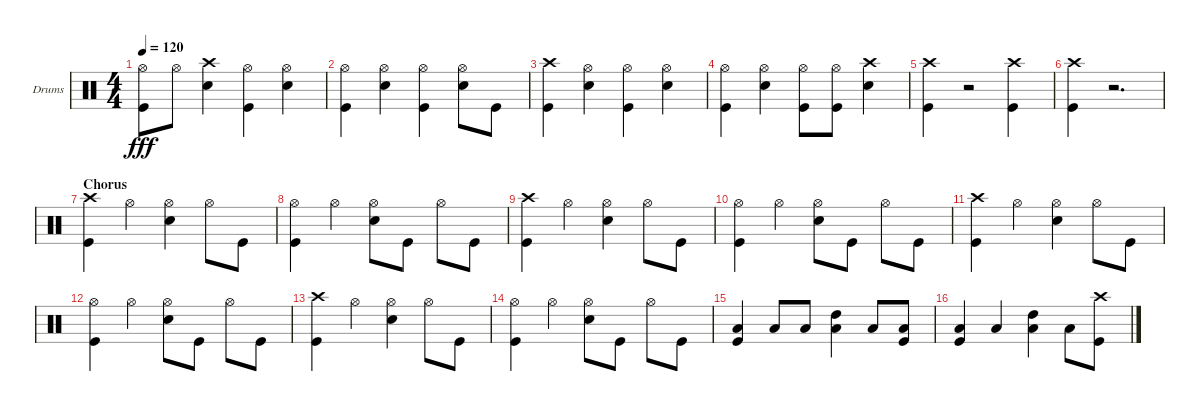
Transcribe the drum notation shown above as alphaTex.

\bracketExtendMode groupsimilarinstruments
\firstSystemTrackNameOrientation horizontal
\otherSystemsTrackNameOrientation horizontal
\track ("Drumkit" "Drums") {instrument percussion}
\staff {score}
\articulation defaults
\ts (4 4)
\tempo 120
\clef neutral
\ks c
("Kick (hit)" "Hi-Hat (open)").8{dy fff} "Hi-Hat (open)".8 ("Crash high (hit)" "Snare (hit) 2").4 ("Hi-Hat (open)" "Kick (hit)").4 ("Snare (hit) 2" "Hi-Hat (open)").4 |
("Hi-Hat (open)" "Kick (hit)").4 ("Hi-Hat (open)" "Snare (hit) 2").4 ("Hi-Hat (open)" "Kick (hit)").4 ("Snare (hit) 2" "Hi-Hat (open)").8 "Kick (hit)".8 |
("Kick (hit)" "Crash high (hit)").4 ("Hi-Hat (open)" "Snare (hit) 2").4 ("Kick (hit)" "Hi-Hat (open)").4 ("Hi-Hat (open)" "Snare (hit) 2").4 |
("Hi-Hat (open)" "Kick (hit)").4 ("Hi-Hat (open)" "Snare (hit) 2").4 ("Kick (hit)" "Hi-Hat (open)").8 ("Kick (hit)" "Hi-Hat (open)").8 ("Crash high (hit)" "Snare (hit) 2").4 |
("Crash high (hit)" "Kick (hit)").4 r.2 ("Kick (hit)" "Crash high (hit)").4 |
("Crash high (hit)" "Kick (hit)").4 r.2{d} |
\section ("" "Chorus")
("Kick (hit)" "Crash high (hit)").4 "Hi-Hat (open)".4 ("Snare (hit) 2" "Hi-Hat (open)").4 "Hi-Hat (open)".8 "Kick (hit)".8 |
("Hi-Hat (open)" "Kick (hit)").4 "Hi-Hat (open)".4 ("Snare (hit) 2" "Hi-Hat (open)").8 "Kick (hit)".8 "Hi-Hat (open)".8 "Kick (hit)".8 |
("Kick (hit)" "Crash high (hit)").4 "Hi-Hat (open)".4 ("Snare (hit) 2" "Hi-Hat (open)").4 "Hi-Hat (open)".8 "Kick (hit)".8 |
("Hi-Hat (open)" "Kick (hit)").4 "Hi-Hat (open)".4 ("Snare (hit) 2" "Hi-Hat (open)").8 "Kick (hit)".8 "Hi-Hat (open)".8 "Kick (hit)".8 |
("Kick (hit)" "Crash high (hit)").4 "Hi-Hat (open)".4 ("Snare (hit) 2" "Hi-Hat (open)").4 "Hi-Hat (open)".8 "Kick (hit)".8 |
("Hi-Hat (open)" "Kick (hit)").4 "Hi-Hat (open)".4 ("Snare (hit) 2" "Hi-Hat (open)").8 "Kick (hit)".8 "Hi-Hat (open)".8 "Kick (hit)".8 |
("Kick (hit)" "Crash high (hit)").4 "Hi-Hat (open)".4 ("Snare (hit) 2" "Hi-Hat (open)").4 "Hi-Hat (open)".8 "Kick (hit)".8 |
("Hi-Hat (open)" "Kick (hit)").4 "Hi-Hat (open)".4 ("Snare (hit) 2" "Hi-Hat (open)").8 "Kick (hit)".8 "Hi-Hat (open)".8 "Kick (hit)".8 |
("Kick (hit)" "Low Tom (hit)").4 "Low Tom (hit)".8 "Low Tom (hit)".8 ("High Tom (hit)" "Low Tom (hit)").4 "Low Tom (hit)".8 ("Kick (hit)" "Low Tom (hit)").8 |
("Kick (hit)" "Low Tom (hit)").4 "Low Tom (hit)".4 ("Low Tom (hit)" "High Tom (hit)").4 "Low Tom (hit)".8 ("Kick (hit)" "Crash high (hit)").8
